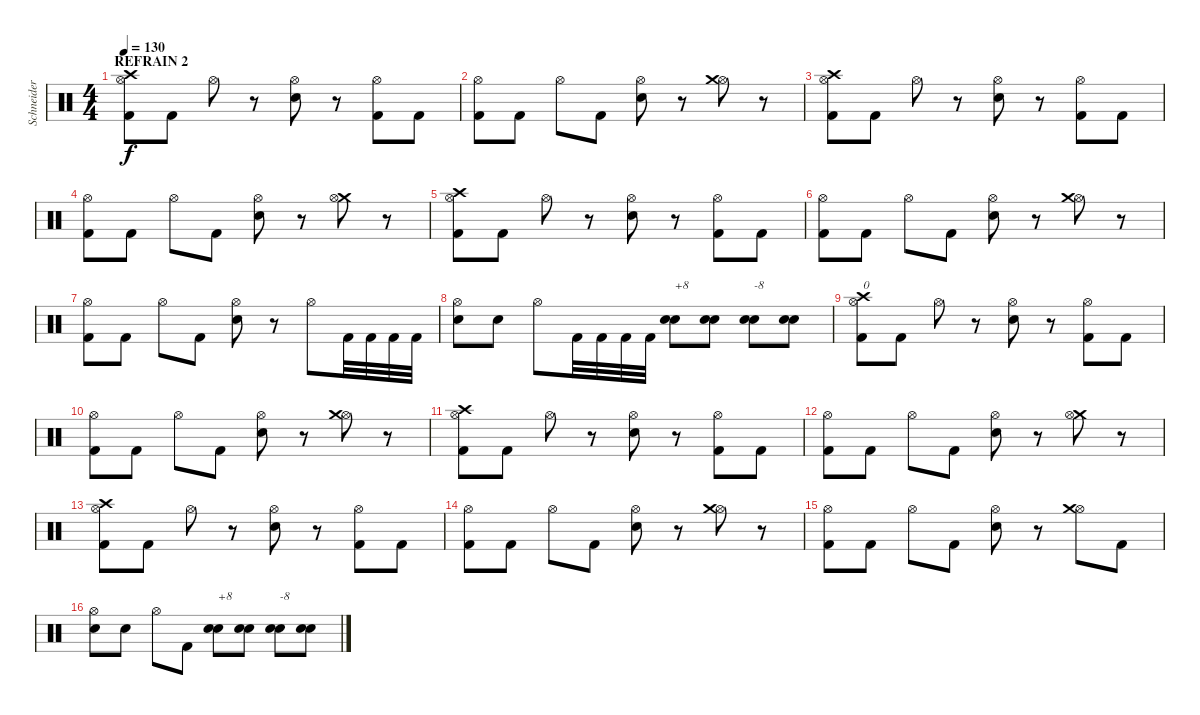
\track ("Schneider - Drums" "Schneider ") {instrument percussion}
\staff {score}
\articulation defaults
\ts (4 4)
\section ("" "REFRAIN 2")
\tempo 130
\clef neutral
\ks c
("Kick (hit) 2" "Hi-Hat (open)" "Crash high (hit)").8{dy f} "Kick (hit) 2".8 "Hi-Hat (open)".8 r.8 ("Electric Snare (hit)" "Hi-Hat (open)").8 r.8 ("Kick (hit) 2" "Hi-Hat (open)").8 "Kick (hit) 2".8 |
("Kick (hit) 2" "Hi-Hat (open)").8 "Kick (hit) 2".8 "Hi-Hat (open)".8 "Kick (hit) 2".8 ("Electric Snare (hit)" "Hi-Hat (open)").8 r.8 ("Hi-Hat (open)" "Crash medium (hit)").8 r.8 |
("Kick (hit) 2" "Hi-Hat (open)" "Crash high (hit)").8 "Kick (hit) 2".8 "Hi-Hat (open)".8 r.8 ("Electric Snare (hit)" "Hi-Hat (open)").8 r.8 ("Kick (hit) 2" "Hi-Hat (open)").8 "Kick (hit) 2".8 |
("Kick (hit) 2" "Hi-Hat (open)").8 "Kick (hit) 2".8 "Hi-Hat (open)".8 "Kick (hit) 2".8 ("Electric Snare (hit)" "Hi-Hat (open)").8 r.8 ("Crash medium (hit)" "Hi-Hat (open)").8 r.8 |
("Kick (hit) 2" "Hi-Hat (open)" "Crash high (hit)").8 "Kick (hit) 2".8 "Hi-Hat (open)".8 r.8 ("Electric Snare (hit)" "Hi-Hat (open)").8 r.8 ("Kick (hit) 2" "Hi-Hat (open)").8 "Kick (hit) 2".8 |
("Kick (hit) 2" "Hi-Hat (open)").8 "Kick (hit) 2".8 "Hi-Hat (open)".8 "Kick (hit) 2".8 ("Electric Snare (hit)" "Hi-Hat (open)").8 r.8 ("Hi-Hat (open)" "Crash medium (hit)").8 r.8 |
("Kick (hit) 2" "Hi-Hat (open)").8 "Kick (hit) 2".8 "Hi-Hat (open)".8 "Kick (hit) 2".8 ("Electric Snare (hit)" "Hi-Hat (open)").8 r.8 "Hi-Hat (open)".8 "Kick (hit) 2".32 "Kick (hit) 2".32 "Kick (hit) 2".32 "Kick (hit) 2".32 |
("Electric Snare (hit)" "Hi-Hat (open)").8 "Electric Snare (hit)".8 "Hi-Hat (open)".8 "Kick (hit) 2".32 "Kick (hit) 2".32 "Kick (hit) 2".32 "Kick (hit) 2".32 ("Electric Snare (hit)" "Electric Snare (hit)").8{txt "+8" balance 16} ("Electric Snare (hit)" "Electric Snare (hit)").8 ("Electric Snare (hit)" "Electric Snare (hit)").8{txt "-8" balance 0} ("Electric Snare (hit)" "Electric Snare (hit)").8 |
("Kick (hit) 2" "Hi-Hat (open)" "Crash high (hit)").8{txt "0" balance 8} "Kick (hit) 2".8 "Hi-Hat (open)".8 r.8 ("Electric Snare (hit)" "Hi-Hat (open)").8 r.8 ("Kick (hit) 2" "Hi-Hat (open)").8 "Kick (hit) 2".8 |
("Kick (hit) 2" "Hi-Hat (open)").8 "Kick (hit) 2".8 "Hi-Hat (open)".8 "Kick (hit) 2".8 ("Electric Snare (hit)" "Hi-Hat (open)").8 r.8 ("Hi-Hat (open)" "Crash medium (hit)").8 r.8 |
("Kick (hit) 2" "Hi-Hat (open)" "Crash high (hit)").8 "Kick (hit) 2".8 "Hi-Hat (open)".8 r.8 ("Electric Snare (hit)" "Hi-Hat (open)").8 r.8 ("Kick (hit) 2" "Hi-Hat (open)").8 "Kick (hit) 2".8 |
("Kick (hit) 2" "Hi-Hat (open)").8 "Kick (hit) 2".8 "Hi-Hat (open)".8 "Kick (hit) 2".8 ("Electric Snare (hit)" "Hi-Hat (open)").8 r.8 ("Crash medium (hit)" "Hi-Hat (open)").8 r.8 |
("Kick (hit) 2" "Hi-Hat (open)" "Crash high (hit)").8 "Kick (hit) 2".8 "Hi-Hat (open)".8 r.8 ("Electric Snare (hit)" "Hi-Hat (open)").8 r.8 ("Kick (hit) 2" "Hi-Hat (open)").8 "Kick (hit) 2".8 |
("Kick (hit) 2" "Hi-Hat (open)").8 "Kick (hit) 2".8 "Hi-Hat (open)".8 "Kick (hit) 2".8 ("Electric Snare (hit)" "Hi-Hat (open)").8 r.8 ("Hi-Hat (open)" "Crash medium (hit)").8 r.8 |
("Kick (hit) 2" "Hi-Hat (open)").8 "Kick (hit) 2".8 "Hi-Hat (open)".8 "Kick (hit) 2".8 ("Electric Snare (hit)" "Hi-Hat (open)").8 r.8 ("Hi-Hat (open)" "Crash medium (hit)").8 "Kick (hit) 2".8 |
("Electric Snare (hit)" "Hi-Hat (open)").8 "Electric Snare (hit)".8 "Hi-Hat (open)".8 "Kick (hit) 2".8 ("Electric Snare (hit)" "Electric Snare (hit)").8{txt "+8" balance 16} ("Electric Snare (hit)" "Electric Snare (hit)").8 ("Electric Snare (hit)" "Electric Snare (hit)").8{txt "-8" balance 0} ("Electric Snare (hit)" "Electric Snare (hit)").8
